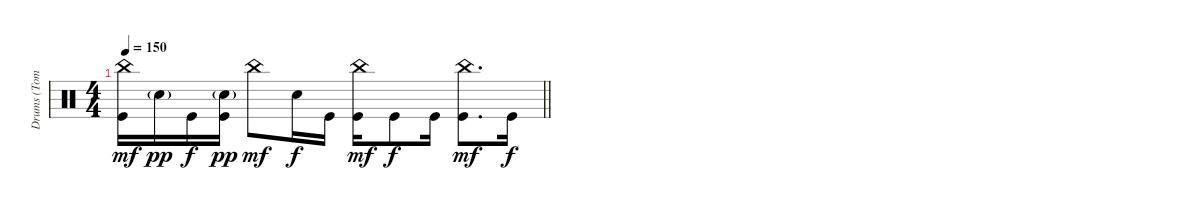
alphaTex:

\track ("Drums (Tomas Haake)" "Drums (Tom") {instrument percussion}
\staff {score}
\articulation defaults
\ts (4 4)
\tempo 150
\clef neutral
\barLineRight lightlight
\ks c
("China (hit)" "Kick (hit)").16{dy mf} "Electric Snare (hit)"{g}.16{dy pp} "Kick (hit)".16{dy f} ("Electric Snare (hit)"{g} "Kick (hit)").16{dy pp} "China (hit)".8{dy mf} "Electric Snare (hit)".16{dy f} "Kick (hit)".16 ("China (hit)" "Kick (hit)").16{dy mf} "Kick (hit)".8{dy f} "Kick (hit)".16 ("China (hit)" "Kick (hit)").8{d dy mf} "Kick (hit)".16{dy f}
